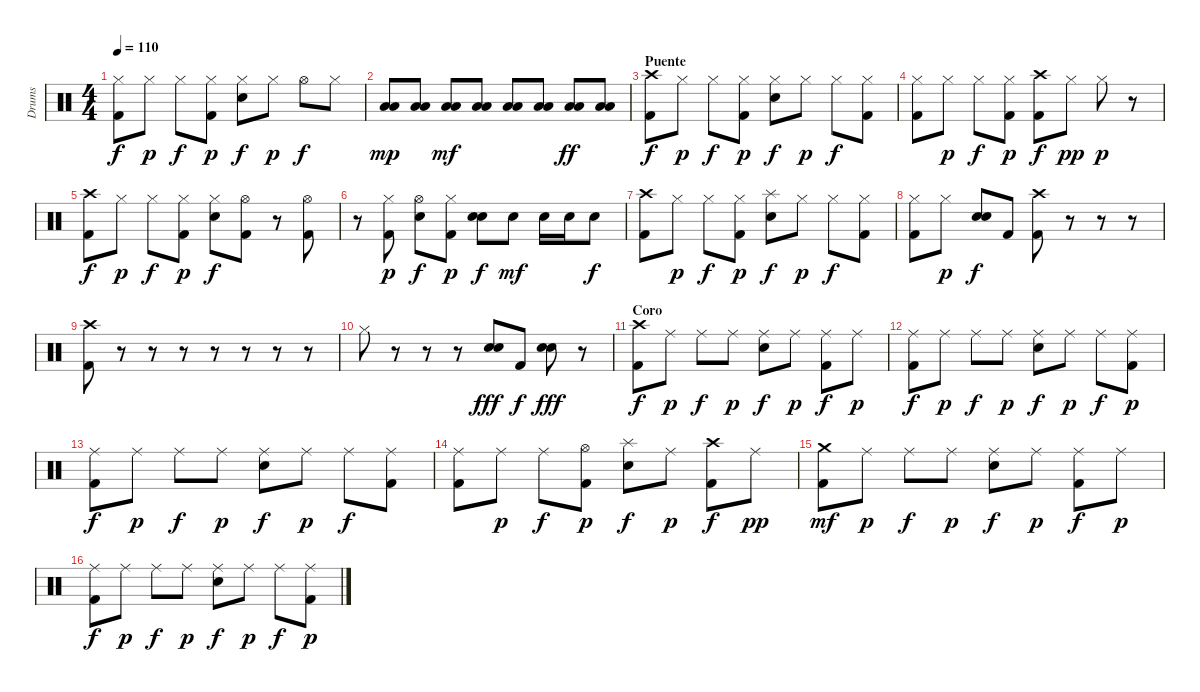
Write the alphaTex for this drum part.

\track ("Drums" "Drums") {instrument percussion}
\staff {score}
\articulation defaults
\ts (4 4)
\tempo 110
\clef neutral
\ks c
("Hi-Hat (closed)" "Kick (hit) 2").8{dy f} "Hi-Hat (closed)".8{dy p} "Hi-Hat (closed)".8{dy f} ("Hi-Hat (closed)" "Kick (hit) 2").8{dy p} ("Hi-Hat (closed)" "Snare (hit) 2").8{dy f} "Hi-Hat (closed)".8{dy p} "Hi-Hat (open)".8{dy f} "Hi-Hat (closed)".8 |
("Low Tom (hit)" "Low Floor Tom (hit)").8{dy mp} ("Low Tom (hit)" "Low Floor Tom (hit)").8 ("Low Tom (hit)" "Low Floor Tom (hit)").8{dy mf} ("Low Tom (hit)" "Low Floor Tom (hit)").8 ("Low Tom (hit)" "Low Floor Tom (hit)").8 ("Low Tom (hit)" "Low Floor Tom (hit)").8 ("Low Tom (hit)" "Low Floor Tom (hit)").8{dy ff} ("Low Tom (hit)" "Low Floor Tom (hit)").8 |
\section ("" "Puente")
("Crash high (hit)" "Kick (hit) 2").8{dy f} "Hi-Hat (closed)".8{dy p} "Hi-Hat (closed)".8{dy f} ("Hi-Hat (closed)" "Kick (hit) 2").8{dy p} ("Hi-Hat (closed)" "Snare (hit) 2").8{dy f} "Hi-Hat (closed)".8{dy p} "Hi-Hat (closed)".8{dy f} ("Hi-Hat (closed)" "Kick (hit) 2").8 |
("Hi-Hat (closed)" "Kick (hit) 2").8 "Hi-Hat (closed)".8{dy p} "Hi-Hat (closed)".8{dy f} ("Hi-Hat (closed)" "Kick (hit) 2").8{dy p} ("Crash high (hit)" "Kick (hit) 2").8{dy f} "Hi-Hat (closed)".8{dy pp} "Hi-Hat (closed)".8{dy p} r.8 |
("Crash high (hit)" "Kick (hit) 2").8{dy f} "Hi-Hat (closed)".8{dy p} "Hi-Hat (closed)".8{dy f} ("Hi-Hat (closed)" "Kick (hit) 2").8{dy p} ("Hi-Hat (closed)" "Snare (hit) 2").8{dy f} ("Hi-Hat (open)" "Kick (hit) 2").8 r.8 ("Hi-Hat (open)" "Kick (hit) 2").8 |
r.8 ("Hi-Hat (closed)" "Kick (hit) 2").8{dy p} ("Hi-Hat (open)" "Snare (hit) 2").8{dy f} ("Hi-Hat (closed)" "Kick (hit) 2").8{dy p} ("Snare (hit) 2" "Snare (hit) 2").8{dy f} "Snare (hit) 2".8{dy mf} "Snare (hit) 2".16 "Snare (hit) 2".16 "Snare (hit) 2".8{dy f} |
("Crash high (hit)" "Kick (hit) 2").8 "Hi-Hat (closed)".8{dy p} "Hi-Hat (closed)".8{dy f} ("Hi-Hat (closed)" "Kick (hit) 2").8{dy p} ("Splash (hit)" "Snare (hit) 2").8{dy f} "Hi-Hat (closed)".8{dy p} "Hi-Hat (closed)".8{dy f} ("Hi-Hat (closed)" "Kick (hit) 2").8 |
("Hi-Hat (closed)" "Kick (hit) 2").8 "Hi-Hat (closed)".8{dy p} ("Snare (hit) 2" "Snare (hit) 2").8{bd 60 dy f} "Kick (hit) 2".8 ("Crash high (hit)" "Kick (hit) 2").8 r.8 r.8 r.8 |
("Crash high (hit)" "Kick (hit) 2").8 r.8 r.8 r.8 r.8 r.8 r.8 r.8 |
"Hi-Hat (closed)".8 r.8 r.8 r.8 ("Snare (hit) 2" "Snare (hit) 2").8{bd 60 dy fff} "Kick (hit) 2".8{dy f} ("Snare (hit) 2" "Snare (hit) 2").8{bd 60 dy fff} r.8 |
\section ("" "Coro")
("Crash high (hit)" "Kick (hit) 2").8{dy f} "Ride (middle)".8{dy p} "Ride (middle)".8{dy f} "Ride (middle)".8{dy p} ("Ride (middle)" "Snare (hit) 2").8{dy f} "Ride (middle)".8{dy p} ("Ride (middle)" "Kick (hit) 2").8{dy f} "Ride (middle)".8{dy p} |
("Ride (middle)" "Kick (hit) 2").8{dy f} "Ride (middle)".8{dy p} "Ride (middle)".8{dy f} "Ride (middle)".8{dy p} ("Ride (middle)" "Snare (hit) 2").8{dy f} "Ride (middle)".8{dy p} "Ride (middle)".8{dy f} ("Ride (middle)" "Kick (hit) 2").8{dy p} |
("Ride (middle)" "Kick (hit) 2").8{dy f} "Ride (middle)".8{dy p} "Ride (middle)".8{dy f} "Ride (middle)".8{dy p} ("Ride (middle)" "Snare (hit) 2").8{dy f} "Ride (middle)".8{dy p} "Ride (middle)".8{dy f} ("Ride (middle)" "Kick (hit) 2").8 |
("Ride (middle)" "Kick (hit) 2").8 "Ride (middle)".8{dy p} "Ride (middle)".8{dy f} ("Hi-Hat (open)" "Kick (hit) 2").8{dy p} ("Splash (hit)" "Snare (hit) 2").8{dy f} "Ride (middle)".8{dy p} ("Crash high (hit)" "Kick (hit) 2").8{dy f} "Ride (middle)".8{dy pp} |
("Crash medium (hit)" "Kick (hit) 2").8{dy mf} "Ride (middle)".8{dy p} "Ride (middle)".8{dy f} "Ride (middle)".8{dy p} ("Ride (middle)" "Snare (hit) 2").8{dy f} "Ride (middle)".8{dy p} ("Ride (middle)" "Kick (hit) 2").8{dy f} "Ride (middle)".8{dy p} |
("Ride (middle)" "Kick (hit) 2").8{dy f} "Ride (middle)".8{dy p} "Ride (middle)".8{dy f} "Ride (middle)".8{dy p} ("Ride (middle)" "Snare (hit) 2").8{dy f} "Ride (middle)".8{dy p} "Ride (middle)".8{dy f} ("Ride (middle)" "Kick (hit) 2").8{dy p}
